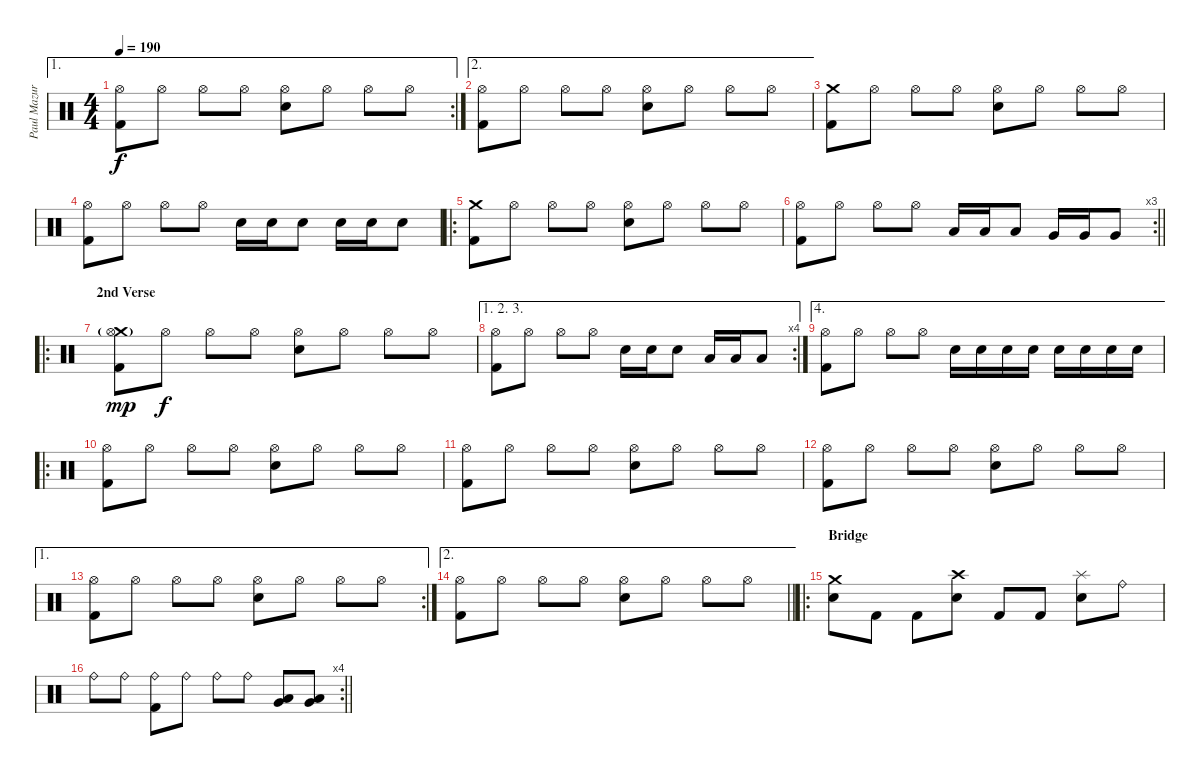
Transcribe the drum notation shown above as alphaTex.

\track ("Paul Mazurkiewicz" "Paul Mazur") {instrument percussion}
\staff {score}
\articulation defaults
\ae 1
\rc 2
\ts (4 4)
\tempo 190
\clef neutral
\ks c
("Hi-Hat (open)" "Kick (hit) 2").8{dy f} "Hi-Hat (open)".8 "Hi-Hat (open)".8 "Hi-Hat (open)".8 ("Hi-Hat (open)" "Electric Snare (hit)").8 "Hi-Hat (open)".8 "Hi-Hat (open)".8 "Hi-Hat (open)".8 |
\ae 2
("Hi-Hat (open)" "Kick (hit) 2").8 "Hi-Hat (open)".8 "Hi-Hat (open)".8 "Hi-Hat (open)".8 ("Hi-Hat (open)" "Electric Snare (hit)").8 "Hi-Hat (open)".8 "Hi-Hat (open)".8 "Hi-Hat (open)".8 |
("Crash medium (hit)" "Kick (hit) 2").8 "Hi-Hat (open)".8 "Hi-Hat (open)".8 "Hi-Hat (open)".8 ("Hi-Hat (open)" "Electric Snare (hit)").8 "Hi-Hat (open)".8 "Hi-Hat (open)".8 "Hi-Hat (open)".8 |
("Hi-Hat (open)" "Kick (hit) 2").8 "Hi-Hat (open)".8 "Hi-Hat (open)".8 "Hi-Hat (open)".8 "Electric Snare (hit)".16 "Electric Snare (hit)".16 "Electric Snare (hit)".8 "Electric Snare (hit)".16 "Electric Snare (hit)".16 "Electric Snare (hit)".8 |
\ro
("Crash medium (hit)" "Kick (hit) 2").8 "Hi-Hat (open)".8 "Hi-Hat (open)".8 "Hi-Hat (open)".8 ("Hi-Hat (open)" "Electric Snare (hit)").8 "Hi-Hat (open)".8 "Hi-Hat (open)".8 "Hi-Hat (open)".8 |
\rc 3
\barLineRight lightlight
("Hi-Hat (open)" "Kick (hit) 2").8 "Hi-Hat (open)".8 "Hi-Hat (open)".8 "Hi-Hat (open)".8 "Low Tom (hit)".16 "Low Tom (hit)".16 "Low Tom (hit)".8 "Very Low Tom (hit)".16 "Very Low Tom (hit)".16 "Very Low Tom (hit)".8 |
\ro
\section ("" "2nd Verse")
("Crash medium (hit)"{g} "Hi-Hat (open)" "Kick (hit) 2").8{dy mp} "Hi-Hat (open)".8{dy f} "Hi-Hat (open)".8 "Hi-Hat (open)".8 ("Hi-Hat (open)" "Electric Snare (hit)").8 "Hi-Hat (open)".8 "Hi-Hat (open)".8 "Hi-Hat (open)".8 |
\ae (1 2 3)
\rc 4
("Hi-Hat (open)" "Kick (hit) 2").8 "Hi-Hat (open)".8 "Hi-Hat (open)".8 "Hi-Hat (open)".8 "Electric Snare (hit)".16 "Electric Snare (hit)".16 "Electric Snare (hit)".8 "Low Tom (hit)".16 "Low Tom (hit)".16 "Low Tom (hit)".8 |
\ae 4
("Hi-Hat (open)" "Kick (hit) 2").8 "Hi-Hat (open)".8 "Hi-Hat (open)".8 "Hi-Hat (open)".8 "Electric Snare (hit)".16 "Electric Snare (hit)".16 "Electric Snare (hit)".16 "Electric Snare (hit)".16 "Electric Snare (hit)".16 "Electric Snare (hit)".16 "Electric Snare (hit)".16 "Electric Snare (hit)".16 |
\ro
("Hi-Hat (open)" "Kick (hit) 2").8 "Hi-Hat (open)".8 "Hi-Hat (open)".8 "Hi-Hat (open)".8 ("Hi-Hat (open)" "Electric Snare (hit)").8 "Hi-Hat (open)".8 "Hi-Hat (open)".8 "Hi-Hat (open)".8 |
("Hi-Hat (open)" "Kick (hit) 2").8 "Hi-Hat (open)".8 "Hi-Hat (open)".8 "Hi-Hat (open)".8 ("Hi-Hat (open)" "Electric Snare (hit)").8 "Hi-Hat (open)".8 "Hi-Hat (open)".8 "Hi-Hat (open)".8 |
("Hi-Hat (open)" "Kick (hit) 2").8 "Hi-Hat (open)".8 "Hi-Hat (open)".8 "Hi-Hat (open)".8 ("Hi-Hat (open)" "Electric Snare (hit)").8 "Hi-Hat (open)".8 "Hi-Hat (open)".8 "Hi-Hat (open)".8 |
\ae 1
\rc 2
("Hi-Hat (open)" "Kick (hit) 2").8 "Hi-Hat (open)".8 "Hi-Hat (open)".8 "Hi-Hat (open)".8 ("Hi-Hat (open)" "Electric Snare (hit)").8 "Hi-Hat (open)".8 "Hi-Hat (open)".8 "Hi-Hat (open)".8 |
\ae 2
\barLineRight lightlight
("Hi-Hat (open)" "Kick (hit) 2").8 "Hi-Hat (open)".8 "Hi-Hat (open)".8 "Hi-Hat (open)".8 ("Hi-Hat (open)" "Electric Snare (hit)").8 "Hi-Hat (open)".8 "Hi-Hat (open)".8 "Hi-Hat (open)".8 |
\ro
\section ("" "Bridge")
("Electric Snare (hit)" "Crash medium (hit)").8 "Kick (hit) 2".8 "Kick (hit) 2".8 ("Electric Snare (hit)" "Crash high (hit)").8 "Kick (hit) 2".8 "Kick (hit) 2".8 ("Electric Snare (hit)" "Splash (hit)").8 "Ride (bell)".8 |
\rc 4
\barLineRight lightlight "Ride (bell)".8 "Ride (bell)".8
("Ride (bell)" "Kick (hit) 2").8 "Ride (bell)".8 "Ride (bell)".8 "Ride (bell)".8 ("Low Tom (hit)" "Very Low Tom (hit)").8 ("Low Tom (hit)" "Very Low Tom (hit)").8
